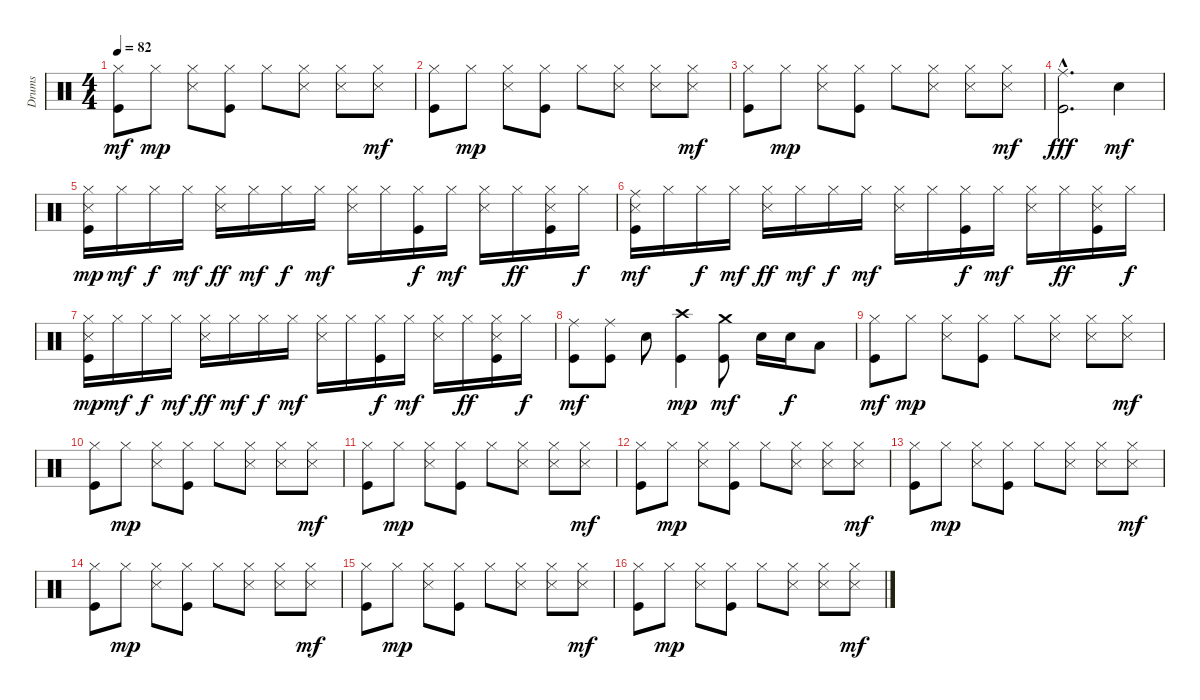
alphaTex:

\track ("Drums" "Drums") {instrument percussion}
\staff {score}
\articulation defaults
\ts (4 4)
\tempo 82
\clef neutral
\ks c
("Kick (hit)" "Hi-Hat (closed)").8{dy mf} "Hi-Hat (closed)".8{dy mp} ("Snare (side stick) 3" "Hi-Hat (closed)").8 ("Kick (hit)" "Hi-Hat (closed)").8 "Hi-Hat (closed)".8 ("Snare (side stick) 3" "Hi-Hat (closed)").8 ("Snare (side stick) 3" "Hi-Hat (closed)").8 ("Snare (side stick) 3" "Hi-Hat (closed)").8{dy mf} |
("Kick (hit)" "Hi-Hat (closed)").8 "Hi-Hat (closed)".8{dy mp} ("Snare (side stick) 3" "Hi-Hat (closed)").8 ("Kick (hit)" "Hi-Hat (closed)").8 "Hi-Hat (closed)".8 ("Snare (side stick) 3" "Hi-Hat (closed)").8 ("Snare (side stick) 3" "Hi-Hat (closed)").8 ("Snare (side stick) 3" "Hi-Hat (closed)").8{dy mf} |
("Kick (hit)" "Hi-Hat (closed)").8 "Hi-Hat (closed)".8{dy mp} ("Snare (side stick) 3" "Hi-Hat (closed)").8 ("Kick (hit)" "Hi-Hat (closed)").8 "Hi-Hat (closed)".8 ("Snare (side stick) 3" "Hi-Hat (closed)").8 ("Snare (side stick) 3" "Hi-Hat (closed)").8 ("Snare (side stick) 3" "Hi-Hat (closed)").8{dy mf} |
("Kick (hit)"{hac} "Ride (middle)"{hac}).2{d dy fff} "Electric Snare (hit)".4{dy mf} |
("Kick (hit)" "Snare (side stick) 3" "Hi-Hat (closed)").16{dy mp} "Hi-Hat (closed)".16{dy mf} "Hi-Hat (closed)".16{dy f} "Hi-Hat (closed)".16{dy mf} ("Snare (side stick) 3" "Hi-Hat (closed)").16{dy ff} "Hi-Hat (closed)".16{dy mf} "Hi-Hat (closed)".16{dy f} "Hi-Hat (closed)".16{dy mf} ("Snare (side stick) 3" "Hi-Hat (closed)").16 "Hi-Hat (closed)".16 ("Kick (hit)" "Hi-Hat (closed)").16{dy f} "Hi-Hat (closed)".16{dy mf} ("Snare (side stick) 3" "Hi-Hat (closed)").16 "Hi-Hat (closed)".16{dy ff} ("Kick (hit)" "Snare (side stick) 3" "Hi-Hat (closed)").16 "Hi-Hat (closed)".16{dy f} |
("Kick (hit)" "Snare (side stick) 3" "Ride (middle)").16{dy mf} "Hi-Hat (closed)".16 "Hi-Hat (closed)".16{dy f} "Hi-Hat (closed)".16{dy mf} ("Snare (side stick) 3" "Hi-Hat (closed)").16{dy ff} "Hi-Hat (closed)".16{dy mf} "Hi-Hat (closed)".16{dy f} "Hi-Hat (closed)".16{dy mf} ("Snare (side stick) 3" "Hi-Hat (closed)").16 "Hi-Hat (closed)".16 ("Kick (hit)" "Hi-Hat (closed)").16{dy f} "Hi-Hat (closed)".16{dy mf} ("Snare (side stick) 3" "Hi-Hat (closed)").16 "Hi-Hat (closed)".16{dy ff} ("Kick (hit)" "Snare (side stick) 3" "Hi-Hat (closed)").16 "Hi-Hat (closed)".16{dy f} |
("Kick (hit)" "Snare (side stick) 3" "Hi-Hat (closed)").16{dy mp} "Hi-Hat (closed)".16{dy mf} "Hi-Hat (closed)".16{dy f} "Hi-Hat (closed)".16{dy mf} ("Snare (side stick) 3" "Hi-Hat (closed)").16{dy ff} "Hi-Hat (closed)".16{dy mf} "Hi-Hat (closed)".16{dy f} "Hi-Hat (closed)".16{dy mf} ("Snare (side stick) 3" "Hi-Hat (closed)").16 "Hi-Hat (closed)".16 ("Kick (hit)" "Hi-Hat (closed)").16{dy f} "Hi-Hat (closed)".16{dy mf} ("Snare (side stick) 3" "Hi-Hat (closed)").16 "Hi-Hat (closed)".16{dy ff} ("Kick (hit)" "Snare (side stick) 3" "Hi-Hat (closed)").16 "Hi-Hat (closed)".16{dy f} |
("Kick (hit)" "Ride (middle)").8{dy mf} ("Kick (hit)" "Ride (middle)").8 "Electric Snare (hit)".8 ("Kick (hit)" "Crash high (hit)").4{dy mp} ("Kick (hit)" "Crash medium (hit)").8{dy mf} "Electric Snare (hit)".16 "Electric Snare (hit)".16{dy f} "Low Tom (hit)".8 |
("Kick (hit)" "Hi-Hat (closed)").8{dy mf} "Hi-Hat (closed)".8{dy mp} ("Snare (side stick) 3" "Hi-Hat (closed)").8 ("Kick (hit)" "Hi-Hat (closed)").8 "Hi-Hat (closed)".8 ("Snare (side stick) 3" "Hi-Hat (closed)").8 ("Snare (side stick) 3" "Hi-Hat (closed)").8 ("Snare (side stick) 3" "Hi-Hat (closed)").8{dy mf} |
("Kick (hit)" "Hi-Hat (closed)").8 "Hi-Hat (closed)".8{dy mp} ("Snare (side stick) 3" "Hi-Hat (closed)").8 ("Kick (hit)" "Hi-Hat (closed)").8 "Hi-Hat (closed)".8 ("Snare (side stick) 3" "Hi-Hat (closed)").8 ("Snare (side stick) 3" "Hi-Hat (closed)").8 ("Snare (side stick) 3" "Hi-Hat (closed)").8{dy mf} |
("Kick (hit)" "Hi-Hat (closed)").8 "Hi-Hat (closed)".8{dy mp} ("Snare (side stick) 3" "Hi-Hat (closed)").8 ("Kick (hit)" "Hi-Hat (closed)").8 "Hi-Hat (closed)".8 ("Snare (side stick) 3" "Hi-Hat (closed)").8 ("Snare (side stick) 3" "Hi-Hat (closed)").8 ("Snare (side stick) 3" "Hi-Hat (closed)").8{dy mf} |
("Kick (hit)" "Hi-Hat (closed)").8 "Hi-Hat (closed)".8{dy mp} ("Snare (side stick) 3" "Hi-Hat (closed)").8 ("Kick (hit)" "Hi-Hat (closed)").8 "Hi-Hat (closed)".8 ("Snare (side stick) 3" "Hi-Hat (closed)").8 ("Snare (side stick) 3" "Hi-Hat (closed)").8 ("Snare (side stick) 3" "Hi-Hat (closed)").8{dy mf} |
("Kick (hit)" "Hi-Hat (closed)").8 "Hi-Hat (closed)".8{dy mp} ("Snare (side stick) 3" "Hi-Hat (closed)").8 ("Kick (hit)" "Hi-Hat (closed)").8 "Hi-Hat (closed)".8 ("Snare (side stick) 3" "Hi-Hat (closed)").8 ("Snare (side stick) 3" "Hi-Hat (closed)").8 ("Snare (side stick) 3" "Hi-Hat (closed)").8{dy mf} |
("Kick (hit)" "Hi-Hat (closed)").8 "Hi-Hat (closed)".8{dy mp} ("Snare (side stick) 3" "Hi-Hat (closed)").8 ("Kick (hit)" "Hi-Hat (closed)").8 "Hi-Hat (closed)".8 ("Snare (side stick) 3" "Hi-Hat (closed)").8 ("Snare (side stick) 3" "Hi-Hat (closed)").8 ("Snare (side stick) 3" "Hi-Hat (closed)").8{dy mf} |
("Kick (hit)" "Hi-Hat (closed)").8 "Hi-Hat (closed)".8{dy mp} ("Snare (side stick) 3" "Hi-Hat (closed)").8 ("Kick (hit)" "Hi-Hat (closed)").8 "Hi-Hat (closed)".8 ("Snare (side stick) 3" "Hi-Hat (closed)").8 ("Snare (side stick) 3" "Hi-Hat (closed)").8 ("Snare (side stick) 3" "Hi-Hat (closed)").8{dy mf} |
("Kick (hit)" "Hi-Hat (closed)").8 "Hi-Hat (closed)".8{dy mp} ("Snare (side stick) 3" "Hi-Hat (closed)").8 ("Kick (hit)" "Hi-Hat (closed)").8 "Hi-Hat (closed)".8 ("Snare (side stick) 3" "Hi-Hat (closed)").8 ("Snare (side stick) 3" "Hi-Hat (closed)").8 ("Snare (side stick) 3" "Hi-Hat (closed)").8{dy mf}
